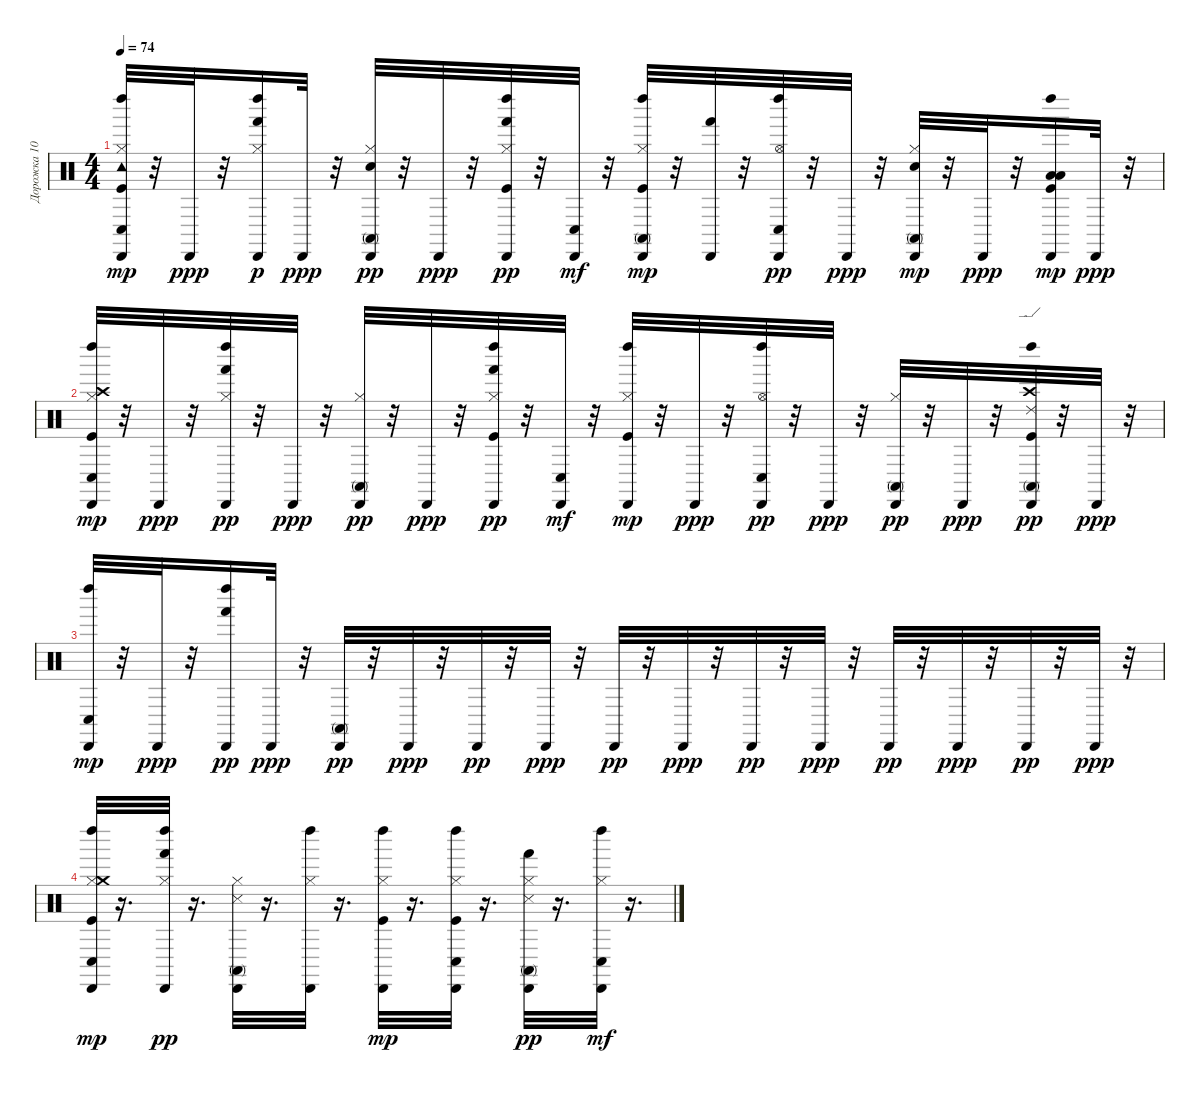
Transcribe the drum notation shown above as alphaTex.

\track ("Дорожка 10" "Дорожка 10") {instrument percussion}
\staff {score}
\articulation defaults
\ts (4 4)
\tempo 74
\clef neutral
\ks c
("Conga low (hit)" "Tambourine (hit)" "Kick (hit)" "Hi-Hat (closed)" "Cabasa (hit)" "Left Maraca (hit)").32{dy mp} r.32 "Cabasa (hit)".32{dy ppp} r.32 ("Hi-Hat (closed)" "Cabasa (hit)" "Left Maraca (hit)" "Hand (hit)").16{dy p} "Cabasa (hit)".32{dy ppp} r.32 ("Electric Snare (hit)" "Hi-Hat (closed)" "Conga high (mute)" "Cabasa (hit)").32{dy pp} r.32 "Cabasa (hit)".32{dy ppp} r.32 ("Kick (hit)" "Hi-Hat (closed)" "Cabasa (hit)" "Left Maraca (hit)" "Hand (hit)").32{dy pp} r.32 ("Cabasa (hit)" "Conga low (hit)").32{dy mf} r.32 ("Kick (hit)" "Hi-Hat (closed)" "Conga high (mute)" "Cabasa (hit)" "Left Maraca (hit)").32{dy mp} r.32 ("Cabasa (hit)" "Hand (hit)").32 r.32 ("Conga low (hit)" "Hi-Hat (open)" "Cabasa (hit)" "Left Maraca (hit)").32{dy pp} r.32 "Cabasa (hit)".32{dy ppp} r.32 ("Electric Snare (hit)" "Hi-Hat (closed)" "Cabasa (hit)" "Conga high (mute)").32{dy mp} r.32 "Cabasa (hit)".32{dy ppp} r.32 ("Low Tom (hit)" "Kick (hit)" "Cabasa (hit)" "Left Maraca (hit)" "Low Tom (hit)").16{dy mp} "Cabasa (hit)".32{dy ppp} r.32 |
("Crash high (hit)" "Conga low (hit)" "Kick (hit)" "Hi-Hat (closed)" "Cabasa (hit)" "Left Maraca (hit)").32{dy mp} r.32 "Cabasa (hit)".32{dy ppp} r.32 ("Hand (hit)" "Hi-Hat (closed)" "Cabasa (hit)" "Left Maraca (hit)").32{dy pp} r.32 "Cabasa (hit)".32{dy ppp} r.32 ("Conga high (mute)" "Hi-Hat (closed)" "Cabasa (hit)").32{dy pp} r.32 "Cabasa (hit)".32{dy ppp} r.32 ("Hand (hit)" "Kick (hit)" "Hi-Hat (closed)" "Cabasa (hit)" "Left Maraca (hit)").32{dy pp} r.32 ("Cabasa (hit)" "Conga low (hit)").32{dy mf} r.32 ("Kick (hit)" "Hi-Hat (closed)" "Cabasa (hit)" "Left Maraca (hit)").32{dy mp} r.32 "Cabasa (hit)".32{dy ppp} r.32 ("Conga low (hit)" "Hi-Hat (open)" "Cabasa (hit)" "Left Maraca (hit)").32{dy pp} r.32 "Cabasa (hit)".32{dy ppp} r.32 ("Conga high (mute)" "Hi-Hat (closed)" "Cabasa (hit)").32{dy pp} r.32 "Cabasa (hit)".32{dy ppp} r.32 ("Conga high (mute)" "Kick (hit)" "Cabasa (hit)" "Left Maraca (hit)" "Ride (edge) 2" "Crash high (hit)").32{dy pp} r.32 "Cabasa (hit)".32{dy ppp} r.32 |
("Conga low (hit)" "Cabasa (hit)" "Left Maraca (hit)").32{dy mp} r.32 "Cabasa (hit)".32{dy ppp} r.32 ("Hand (hit)" "Cabasa (hit)" "Left Maraca (hit)").16{dy pp} "Cabasa (hit)".32{dy ppp} r.32 ("Conga high (mute)" "Cabasa (hit)").32{dy pp} r.32 "Cabasa (hit)".32{dy ppp} r.32 "Cabasa (hit)".32{dy pp} r.32 "Cabasa (hit)".32{dy ppp} r.32 "Cabasa (hit)".32{dy pp} r.32 "Cabasa (hit)".32{dy ppp} r.32 "Cabasa (hit)".32{dy pp} r.32 "Cabasa (hit)".32{dy ppp} r.32 "Cabasa (hit)".32{dy pp} r.32 "Cabasa (hit)".32{dy ppp} r.32 "Cabasa (hit)".32{dy pp} r.32 "Cabasa (hit)".32{dy ppp} r.32 |
("Hi-Hat (closed)" "Crash medium (hit)" "Kick (hit)" "Conga low (hit)" "Cabasa (hit)" "Left Maraca (hit)").32{dy mp} r.16{d} ("Hi-Hat (closed)" "Hand (hit)" "Cabasa (hit)" "Left Maraca (hit)").32{dy pp} r.16{d} ("Snare (side stick) 3" "Hi-Hat (closed)" "Conga high (mute)" "Cabasa (hit)").32 r.16{d} ("Hi-Hat (closed)" "Cabasa (hit)" "Left Maraca (hit)").32 r.16{d} ("Hi-Hat (closed)" "Cabasa (hit)" "Left Maraca (hit)" "Kick (hit)").32{dy mp} r.16{d} ("Hi-Hat (closed)" "Conga low (hit)" "Cabasa (hit)" "Left Maraca (hit)" "Kick (hit)").32 r.16{d} ("Snare (side stick) 3" "Hi-Hat (closed)" "Conga high (mute)" "Hand (hit)" "Cabasa (hit)").32{dy pp} r.16{d} ("Hi-Hat (closed)" "Cabasa (hit)" "Left Maraca (hit)" "Conga low (hit)").32{dy mf} r.16{d}
